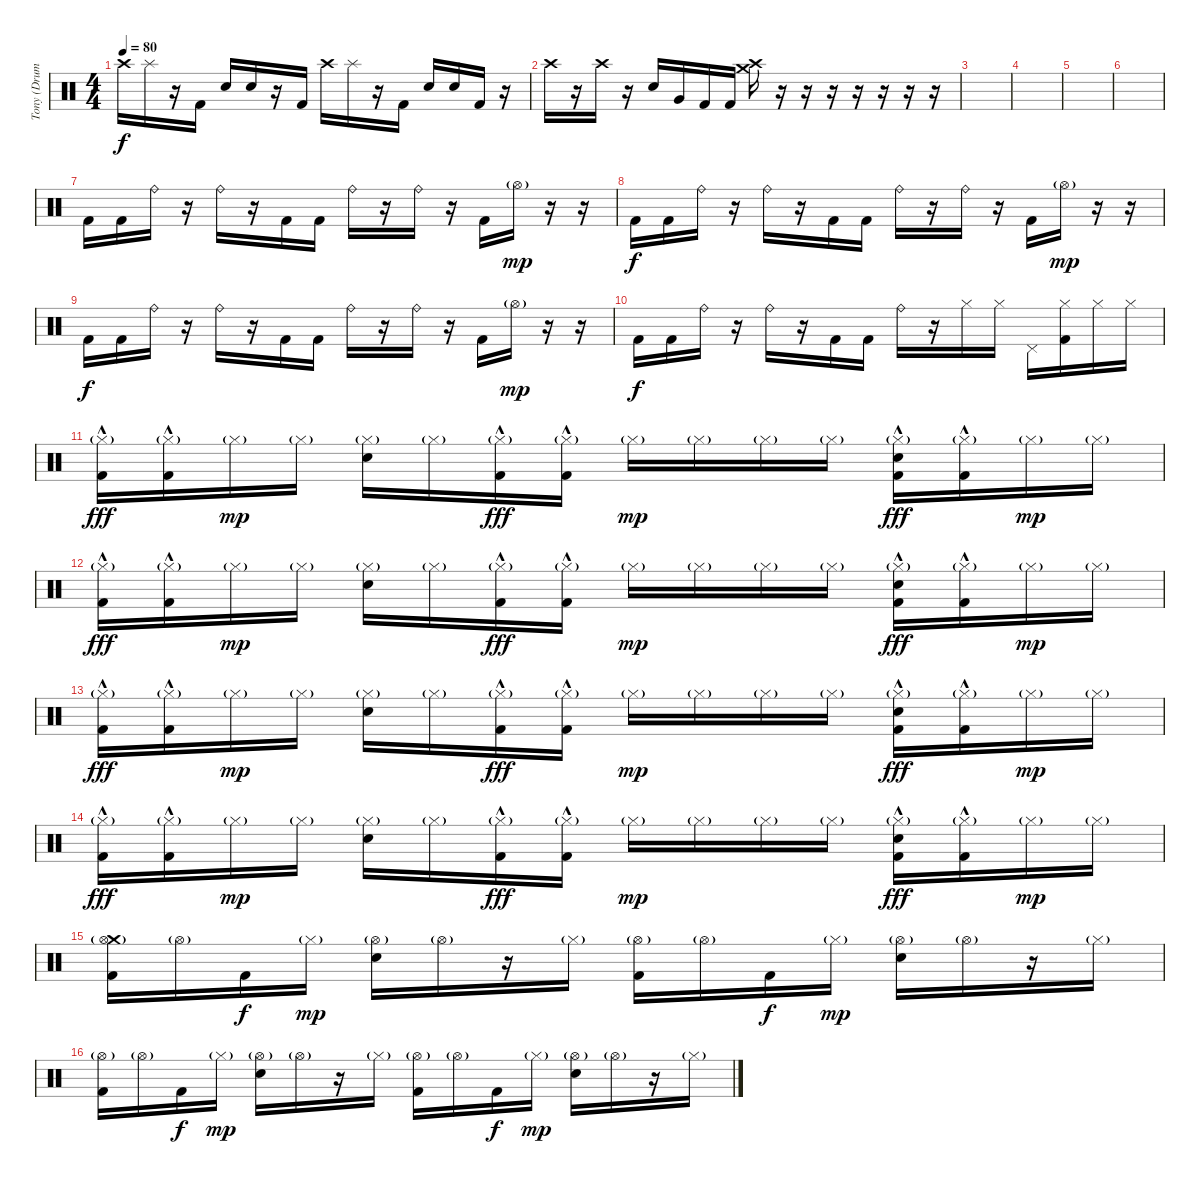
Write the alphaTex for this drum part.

\track ("Tony (Drums)" "Tony (Drum") {instrument percussion}
\staff {score}
\articulation defaults
\ts (4 4)
\tempo 80
\clef neutral
\ks c "Crash high (hit)".16{dy f} "Splash (hit)".16
r.16 "Kick (hit) 2".16 "Snare (hit) 2".16 "Snare (hit) 2".16 r.16 "Kick (hit) 2".16 "Crash high (hit)".16 "Splash (hit)".16 r.16 "Kick (hit) 2".16 "Snare (hit) 2".16 "Snare (hit) 2".16 "Kick (hit) 2".16 r.16 |
"Crash high (hit)".16 r.16 "Crash high (hit)".16 r.16 "Snare (hit) 2".16 "Very Low Tom (hit)".16 "Kick (hit) 2".16 "Kick (hit) 2".16 ("Crash high (hit)" "Crash medium (hit)").16 r.16 r.16 r.16 r.16 r.16 r.16 r.16 |
|
|
|
|
"Kick (hit) 2".16 "Kick (hit) 2".16 "Ride (bell)".16 r.16 "Ride (bell)".16 r.16 "Kick (hit) 2".16 "Kick (hit) 2".16 "Ride (bell)".16 r.16 "Ride (bell)".16 r.16 "Kick (hit) 2".16 "Hi-Hat (open)"{g}.16{dy mp} r.16 r.16 |
"Kick (hit) 2".16{dy f} "Kick (hit) 2".16 "Ride (bell)".16 r.16 "Ride (bell)".16 r.16 "Kick (hit) 2".16 "Kick (hit) 2".16 "Ride (bell)".16 r.16 "Ride (bell)".16 r.16 "Kick (hit) 2".16 "Hi-Hat (open)"{g}.16{dy mp} r.16 r.16 |
"Kick (hit) 2".16{dy f} "Kick (hit) 2".16 "Ride (bell)".16 r.16 "Ride (bell)".16 r.16 "Kick (hit) 2".16 "Kick (hit) 2".16 "Ride (bell)".16 r.16 "Ride (bell)".16 r.16 "Kick (hit) 2".16 "Hi-Hat (open)"{g}.16{dy mp} r.16 r.16 |
"Kick (hit) 2".16{dy f} "Kick (hit) 2".16 "Ride (bell)".16 r.16 "Ride (bell)".16 r.16 "Kick (hit) 2".16 "Kick (hit) 2".16 "Ride (bell)".16 r.16 "Hi-Hat (closed)".16 "Hi-Hat (closed)".16 "Pedal Hi-Hat (hit)".16 ("Hi-Hat (closed)" "Kick (hit) 2").16 "Hi-Hat (closed)".16 "Hi-Hat (closed)".16 |
("Hi-Hat (closed)"{g} "Kick (hit) 2"{hac}).16{dy fff} ("Hi-Hat (closed)"{g} "Kick (hit) 2"{hac}).16 "Hi-Hat (closed)"{g}.16{dy mp} "Hi-Hat (closed)"{g}.16 ("Hi-Hat (closed)"{g} "Snare (hit) 2").16 "Hi-Hat (closed)"{g}.16 ("Hi-Hat (closed)"{g} "Kick (hit) 2"{hac}).16{dy fff} ("Hi-Hat (closed)"{g} "Kick (hit) 2"{hac}).16 "Hi-Hat (closed)"{g}.16{dy mp} "Hi-Hat (closed)"{g}.16 "Hi-Hat (closed)"{g}.16 "Hi-Hat (closed)"{g}.16 ("Hi-Hat (closed)"{g} "Snare (hit) 2" "Kick (hit) 2"{hac}).16{dy fff} ("Hi-Hat (closed)"{g} "Kick (hit) 2"{hac}).16 "Hi-Hat (closed)"{g}.16{dy mp} "Hi-Hat (closed)"{g}.16 |
("Hi-Hat (closed)"{g} "Kick (hit) 2"{hac}).16{dy fff} ("Hi-Hat (closed)"{g} "Kick (hit) 2"{hac}).16 "Hi-Hat (closed)"{g}.16{dy mp} "Hi-Hat (closed)"{g}.16 ("Hi-Hat (closed)"{g} "Snare (hit) 2").16 "Hi-Hat (closed)"{g}.16 ("Hi-Hat (closed)"{g} "Kick (hit) 2"{hac}).16{dy fff} ("Hi-Hat (closed)"{g} "Kick (hit) 2"{hac}).16 "Hi-Hat (closed)"{g}.16{dy mp} "Hi-Hat (closed)"{g}.16 "Hi-Hat (closed)"{g}.16 "Hi-Hat (closed)"{g}.16 ("Hi-Hat (closed)"{g} "Snare (hit) 2" "Kick (hit) 2"{hac}).16{dy fff} ("Hi-Hat (closed)"{g} "Kick (hit) 2"{hac}).16 "Hi-Hat (closed)"{g}.16{dy mp} "Hi-Hat (closed)"{g}.16 |
("Hi-Hat (closed)"{g} "Kick (hit) 2"{hac}).16{dy fff} ("Hi-Hat (closed)"{g} "Kick (hit) 2"{hac}).16 "Hi-Hat (closed)"{g}.16{dy mp} "Hi-Hat (closed)"{g}.16 ("Hi-Hat (closed)"{g} "Snare (hit) 2").16 "Hi-Hat (closed)"{g}.16 ("Hi-Hat (closed)"{g} "Kick (hit) 2"{hac}).16{dy fff} ("Hi-Hat (closed)"{g} "Kick (hit) 2"{hac}).16 "Hi-Hat (closed)"{g}.16{dy mp} "Hi-Hat (closed)"{g}.16 "Hi-Hat (closed)"{g}.16 "Hi-Hat (closed)"{g}.16 ("Hi-Hat (closed)"{g} "Snare (hit) 2" "Kick (hit) 2"{hac}).16{dy fff} ("Hi-Hat (closed)"{g} "Kick (hit) 2"{hac}).16 "Hi-Hat (closed)"{g}.16{dy mp} "Hi-Hat (closed)"{g}.16 |
("Hi-Hat (closed)"{g} "Kick (hit) 2"{hac}).16{dy fff} ("Hi-Hat (closed)"{g} "Kick (hit) 2"{hac}).16 "Hi-Hat (closed)"{g}.16{dy mp} "Hi-Hat (closed)"{g}.16 ("Hi-Hat (closed)"{g} "Snare (hit) 2").16 "Hi-Hat (closed)"{g}.16 ("Hi-Hat (closed)"{g} "Kick (hit) 2"{hac}).16{dy fff} ("Hi-Hat (closed)"{g} "Kick (hit) 2"{hac}).16 "Hi-Hat (closed)"{g}.16{dy mp} "Hi-Hat (closed)"{g}.16 "Hi-Hat (closed)"{g}.16 "Hi-Hat (closed)"{g}.16 ("Hi-Hat (closed)"{g} "Snare (hit) 2" "Kick (hit) 2"{hac}).16{dy fff} ("Hi-Hat (closed)"{g} "Kick (hit) 2"{hac}).16 "Hi-Hat (closed)"{g}.16{dy mp} "Hi-Hat (closed)"{g}.16 |
("Crash medium (hit)" "Hi-Hat (open)"{g} "Kick (hit) 2").16 "Hi-Hat (open)"{g}.16 "Kick (hit) 2".16{dy f} "Hi-Hat (closed)"{g}.16{dy mp} ("Hi-Hat (open)"{g} "Snare (hit) 2").16 "Hi-Hat (open)"{g}.16 r.16 "Hi-Hat (closed)"{g}.16 ("Hi-Hat (open)"{g} "Kick (hit) 2").16 "Hi-Hat (open)"{g}.16 "Kick (hit) 2".16{dy f} "Hi-Hat (closed)"{g}.16{dy mp} ("Hi-Hat (open)"{g} "Snare (hit) 2").16 "Hi-Hat (open)"{g}.16 r.16 "Hi-Hat (closed)"{g}.16 |
("Hi-Hat (open)"{g} "Kick (hit) 2").16 "Hi-Hat (open)"{g}.16 "Kick (hit) 2".16{dy f} "Hi-Hat (closed)"{g}.16{dy mp} ("Hi-Hat (open)"{g} "Snare (hit) 2").16 "Hi-Hat (open)"{g}.16 r.16 "Hi-Hat (closed)"{g}.16 ("Hi-Hat (open)"{g} "Kick (hit) 2").16 "Hi-Hat (open)"{g}.16 "Kick (hit) 2".16{dy f} "Hi-Hat (closed)"{g}.16{dy mp} ("Hi-Hat (open)"{g} "Snare (hit) 2").16 "Hi-Hat (open)"{g}.16 r.16 "Hi-Hat (closed)"{g}.16
